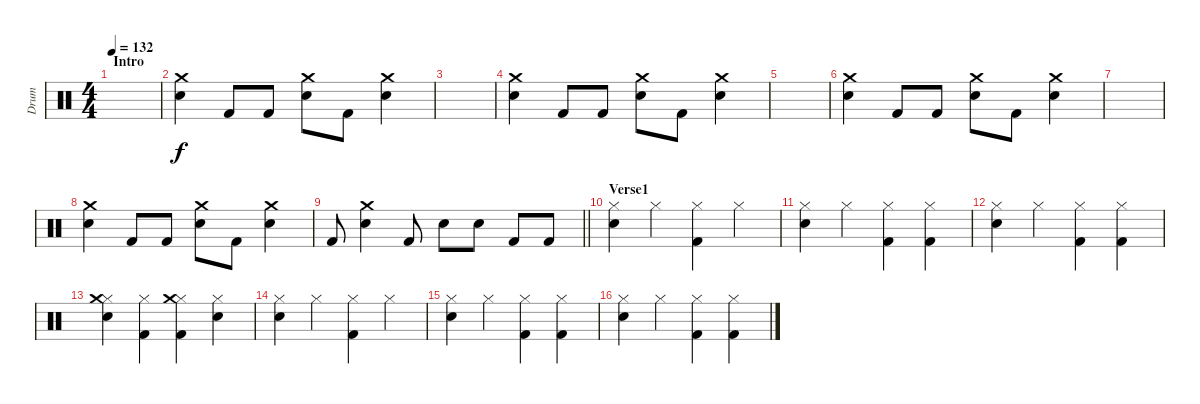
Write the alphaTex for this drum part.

\track ("Drum" "Drum") {instrument percussion}
\staff {score}
\articulation defaults
\ts (4 4)
\section ("" "Intro")
\tempo 132
\clef neutral
\ks c
|
("Snare (hit) 2" "Crash medium (hit)").4 "Kick (hit) 2".8 "Kick (hit) 2".8 ("Snare (hit) 2" "Crash medium (hit)").8 "Kick (hit) 2".8 ("Snare (hit) 2" "Crash medium (hit)").4 |
|
("Snare (hit) 2" "Crash medium (hit)").4 "Kick (hit) 2".8 "Kick (hit) 2".8 ("Snare (hit) 2" "Crash medium (hit)").8 "Kick (hit) 2".8 ("Snare (hit) 2" "Crash medium (hit)").4 |
|
("Snare (hit) 2" "Crash medium (hit)").4 "Kick (hit) 2".8 "Kick (hit) 2".8 ("Snare (hit) 2" "Crash medium (hit)").8 "Kick (hit) 2".8 ("Snare (hit) 2" "Crash medium (hit)").4 |
|
("Snare (hit) 2" "Crash medium (hit)").4 "Kick (hit) 2".8 "Kick (hit) 2".8 ("Snare (hit) 2" "Crash medium (hit)").8 "Kick (hit) 2".8 ("Snare (hit) 2" "Crash medium (hit)").4 |
\barLineRight lightlight "Kick (hit) 2".8
("Crash medium (hit)" "Snare (hit) 2").4 "Kick (hit) 2".8 "Snare (hit) 2".8 "Snare (hit) 2".8 "Kick (hit) 2".8 "Kick (hit) 2".8 |
\section ("" "Verse1")
("Hi-Hat (closed)" "Snare (hit) 2").4 "Hi-Hat (closed)".4 ("Hi-Hat (closed)" "Kick (hit) 2").4 "Hi-Hat (closed)".4 |
("Hi-Hat (closed)" "Snare (hit) 2").4 "Hi-Hat (closed)".4 ("Hi-Hat (closed)" "Kick (hit) 2").4 ("Hi-Hat (closed)" "Kick (hit) 2").4 |
("Hi-Hat (closed)" "Snare (hit) 2").4 "Hi-Hat (closed)".4 ("Hi-Hat (closed)" "Kick (hit) 2").4 ("Hi-Hat (closed)" "Kick (hit) 2").4 |
("Hi-Hat (closed)" "Snare (hit) 2" "Crash medium (hit)").4 ("Hi-Hat (closed)" "Kick (hit) 2").4 ("Hi-Hat (closed)" "Kick (hit) 2" "Crash medium (hit)").4 ("Hi-Hat (closed)" "Snare (hit) 2").4 |
("Hi-Hat (closed)" "Snare (hit) 2").4 "Hi-Hat (closed)".4 ("Hi-Hat (closed)" "Kick (hit) 2").4 "Hi-Hat (closed)".4 |
("Hi-Hat (closed)" "Snare (hit) 2").4 "Hi-Hat (closed)".4 ("Hi-Hat (closed)" "Kick (hit) 2").4 ("Hi-Hat (closed)" "Kick (hit) 2").4 |
("Hi-Hat (closed)" "Snare (hit) 2").4 "Hi-Hat (closed)".4 ("Hi-Hat (closed)" "Kick (hit) 2").4 ("Hi-Hat (closed)" "Kick (hit) 2").4
